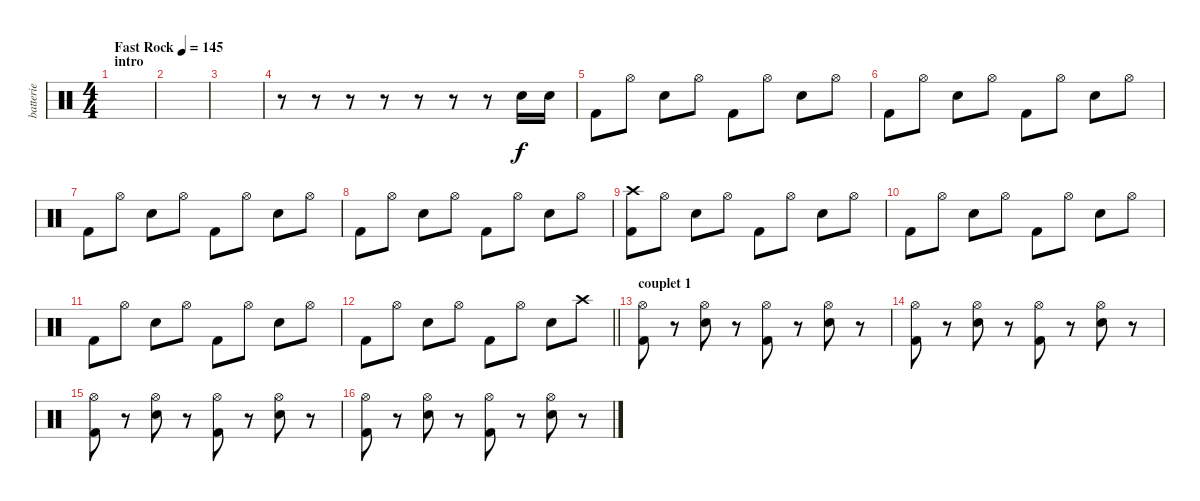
\track ("batterie" "batterie") {instrument percussion}
\staff {score}
\articulation defaults
\ts (4 4)
\section ("" "intro")
\tempo (145 "Fast Rock")
\clef neutral
\ks c
|
|
|
r.8 r.8 r.8 r.8 r.8 r.8 r.8 "Electric Snare (hit)".16 "Electric Snare (hit)".16 |
"Kick (hit) 2".8 "Hi-Hat (open)".8 "Electric Snare (hit)".8 "Hi-Hat (open)".8 "Kick (hit) 2".8 "Hi-Hat (open)".8 "Electric Snare (hit)".8 "Hi-Hat (open)".8 |
"Kick (hit) 2".8 "Hi-Hat (open)".8 "Electric Snare (hit)".8 "Hi-Hat (open)".8 "Kick (hit) 2".8 "Hi-Hat (open)".8 "Electric Snare (hit)".8 "Hi-Hat (open)".8 |
"Kick (hit) 2".8 "Hi-Hat (open)".8 "Electric Snare (hit)".8 "Hi-Hat (open)".8 "Kick (hit) 2".8 "Hi-Hat (open)".8 "Electric Snare (hit)".8 "Hi-Hat (open)".8 |
"Kick (hit) 2".8 "Hi-Hat (open)".8 "Electric Snare (hit)".8 "Hi-Hat (open)".8 "Kick (hit) 2".8 "Hi-Hat (open)".8 "Electric Snare (hit)".8 "Hi-Hat (open)".8 |
("Crash high (hit)" "Kick (hit) 2").8 "Hi-Hat (open)".8 "Electric Snare (hit)".8 "Hi-Hat (open)".8 "Kick (hit) 2".8 "Hi-Hat (open)".8 "Electric Snare (hit)".8 "Hi-Hat (open)".8 |
"Kick (hit) 2".8 "Hi-Hat (open)".8 "Electric Snare (hit)".8 "Hi-Hat (open)".8 "Kick (hit) 2".8 "Hi-Hat (open)".8 "Electric Snare (hit)".8 "Hi-Hat (open)".8 |
"Kick (hit) 2".8 "Hi-Hat (open)".8 "Electric Snare (hit)".8 "Hi-Hat (open)".8 "Kick (hit) 2".8 "Hi-Hat (open)".8 "Electric Snare (hit)".8 "Hi-Hat (open)".8 |
\barLineRight lightlight "Kick (hit) 2".8 "Hi-Hat (open)".8 "Electric Snare (hit)".8 "Hi-Hat (open)".8 "Kick (hit) 2".8 "Hi-Hat (open)".8 "Electric Snare (hit)".8 "Crash high (hit)".8
|
\section ("" "couplet 1")
("Hi-Hat (open)" "Kick (hit) 2").8 r.8 ("Hi-Hat (open)" "Electric Snare (hit)").8 r.8 ("Hi-Hat (open)" "Kick (hit) 2").8 r.8 ("Hi-Hat (open)" "Electric Snare (hit)").8 r.8 |
("Hi-Hat (open)" "Kick (hit) 2").8 r.8 ("Hi-Hat (open)" "Electric Snare (hit)").8 r.8 ("Hi-Hat (open)" "Kick (hit) 2").8 r.8 ("Hi-Hat (open)" "Electric Snare (hit)").8 r.8 |
("Hi-Hat (open)" "Kick (hit) 2").8 r.8 ("Hi-Hat (open)" "Electric Snare (hit)").8 r.8 ("Hi-Hat (open)" "Kick (hit) 2").8 r.8 ("Hi-Hat (open)" "Electric Snare (hit)").8 r.8 |
("Hi-Hat (open)" "Kick (hit) 2").8 r.8 ("Hi-Hat (open)" "Electric Snare (hit)").8 r.8 ("Hi-Hat (open)" "Kick (hit) 2").8 r.8 ("Hi-Hat (open)" "Electric Snare (hit)").8 r.8
